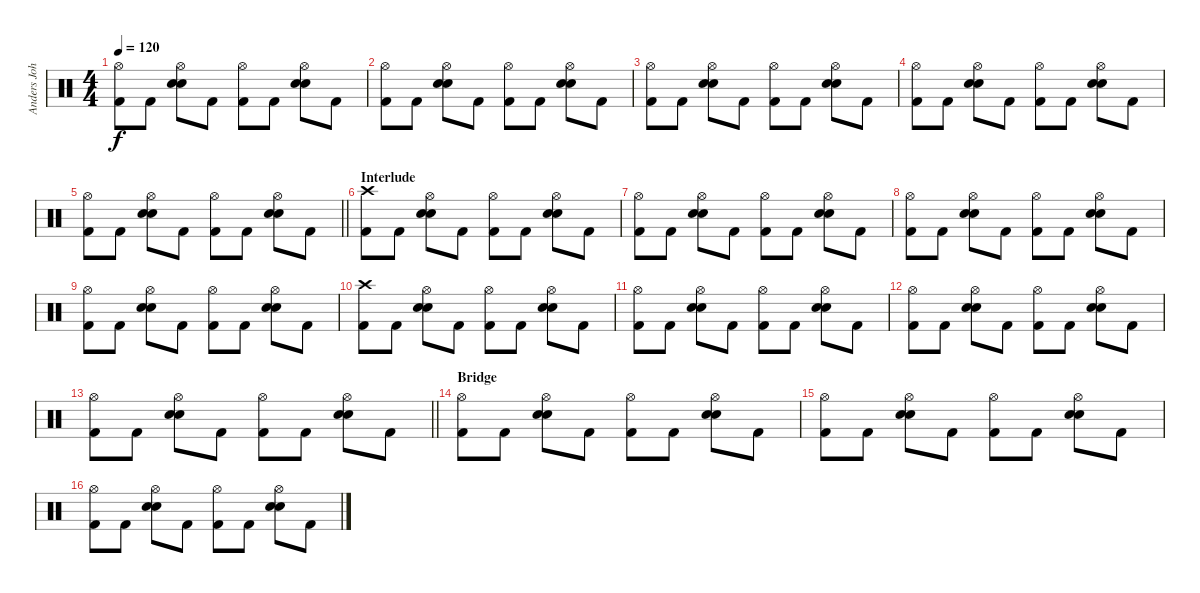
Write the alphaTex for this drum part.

\track ("Anders Johansson" "Anders Joh") {instrument percussion}
\staff {score}
\articulation defaults
\ts (4 4)
\tempo 120
\clef neutral
\ks c
("Hi-Hat (open)" "Kick (hit) 2").8{dy f} "Kick (hit) 2".8 ("Hi-Hat (open)" "Electric Snare (hit)" "Snare (hit) 2").8 "Kick (hit) 2".8 ("Hi-Hat (open)" "Kick (hit) 2").8 "Kick (hit) 2".8 ("Hi-Hat (open)" "Electric Snare (hit)" "Snare (hit) 2").8 "Kick (hit) 2".8 |
("Hi-Hat (open)" "Kick (hit) 2").8 "Kick (hit) 2".8 ("Hi-Hat (open)" "Electric Snare (hit)" "Snare (hit) 2").8 "Kick (hit) 2".8 ("Hi-Hat (open)" "Kick (hit) 2").8 "Kick (hit) 2".8 ("Hi-Hat (open)" "Electric Snare (hit)" "Snare (hit) 2").8 "Kick (hit) 2".8 |
("Hi-Hat (open)" "Kick (hit) 2").8 "Kick (hit) 2".8 ("Hi-Hat (open)" "Electric Snare (hit)" "Snare (hit) 2").8 "Kick (hit) 2".8 ("Hi-Hat (open)" "Kick (hit) 2").8 "Kick (hit) 2".8 ("Hi-Hat (open)" "Electric Snare (hit)" "Snare (hit) 2").8 "Kick (hit) 2".8 |
("Hi-Hat (open)" "Kick (hit) 2").8 "Kick (hit) 2".8 ("Hi-Hat (open)" "Electric Snare (hit)" "Snare (hit) 2").8 "Kick (hit) 2".8 ("Hi-Hat (open)" "Kick (hit) 2").8 "Kick (hit) 2".8 ("Hi-Hat (open)" "Electric Snare (hit)" "Snare (hit) 2").8 "Kick (hit) 2".8 |
\barLineRight lightlight
("Hi-Hat (open)" "Kick (hit) 2").8 "Kick (hit) 2".8 ("Hi-Hat (open)" "Electric Snare (hit)" "Snare (hit) 2").8 "Kick (hit) 2".8 ("Hi-Hat (open)" "Kick (hit) 2").8 "Kick (hit) 2".8 ("Hi-Hat (open)" "Electric Snare (hit)" "Snare (hit) 2").8 "Kick (hit) 2".8 |
\section ("" "Interlude")
("Crash high (hit)" "Kick (hit) 2").8 "Kick (hit) 2".8 ("Hi-Hat (open)" "Electric Snare (hit)" "Snare (hit) 2").8 "Kick (hit) 2".8 ("Hi-Hat (open)" "Kick (hit) 2").8 "Kick (hit) 2".8 ("Hi-Hat (open)" "Electric Snare (hit)" "Snare (hit) 2").8 "Kick (hit) 2".8 |
("Hi-Hat (open)" "Kick (hit) 2").8 "Kick (hit) 2".8 ("Hi-Hat (open)" "Electric Snare (hit)" "Snare (hit) 2").8 "Kick (hit) 2".8 ("Hi-Hat (open)" "Kick (hit) 2").8 "Kick (hit) 2".8 ("Hi-Hat (open)" "Electric Snare (hit)" "Snare (hit) 2").8 "Kick (hit) 2".8 |
("Hi-Hat (open)" "Kick (hit) 2").8 "Kick (hit) 2".8 ("Hi-Hat (open)" "Electric Snare (hit)" "Snare (hit) 2").8 "Kick (hit) 2".8 ("Hi-Hat (open)" "Kick (hit) 2").8 "Kick (hit) 2".8 ("Hi-Hat (open)" "Electric Snare (hit)" "Snare (hit) 2").8 "Kick (hit) 2".8 |
("Hi-Hat (open)" "Kick (hit) 2").8 "Kick (hit) 2".8 ("Hi-Hat (open)" "Electric Snare (hit)" "Snare (hit) 2").8 "Kick (hit) 2".8 ("Hi-Hat (open)" "Kick (hit) 2").8 "Kick (hit) 2".8 ("Hi-Hat (open)" "Electric Snare (hit)" "Snare (hit) 2").8 "Kick (hit) 2".8 |
("Crash high (hit)" "Kick (hit) 2").8 "Kick (hit) 2".8 ("Hi-Hat (open)" "Electric Snare (hit)" "Snare (hit) 2").8 "Kick (hit) 2".8 ("Hi-Hat (open)" "Kick (hit) 2").8 "Kick (hit) 2".8 ("Hi-Hat (open)" "Electric Snare (hit)" "Snare (hit) 2").8 "Kick (hit) 2".8 |
("Hi-Hat (open)" "Kick (hit) 2").8 "Kick (hit) 2".8 ("Hi-Hat (open)" "Electric Snare (hit)" "Snare (hit) 2").8 "Kick (hit) 2".8 ("Hi-Hat (open)" "Kick (hit) 2").8 "Kick (hit) 2".8 ("Hi-Hat (open)" "Electric Snare (hit)" "Snare (hit) 2").8 "Kick (hit) 2".8 |
("Hi-Hat (open)" "Kick (hit) 2").8 "Kick (hit) 2".8 ("Hi-Hat (open)" "Electric Snare (hit)" "Snare (hit) 2").8 "Kick (hit) 2".8 ("Hi-Hat (open)" "Kick (hit) 2").8 "Kick (hit) 2".8 ("Hi-Hat (open)" "Electric Snare (hit)" "Snare (hit) 2").8 "Kick (hit) 2".8 |
\barLineRight lightlight
("Hi-Hat (open)" "Kick (hit) 2").8 "Kick (hit) 2".8 ("Hi-Hat (open)" "Electric Snare (hit)" "Snare (hit) 2").8 "Kick (hit) 2".8 ("Hi-Hat (open)" "Kick (hit) 2").8 "Kick (hit) 2".8 ("Hi-Hat (open)" "Electric Snare (hit)" "Snare (hit) 2").8 "Kick (hit) 2".8 |
\section ("" "Bridge")
("Hi-Hat (open)" "Kick (hit) 2").8 "Kick (hit) 2".8 ("Hi-Hat (open)" "Electric Snare (hit)" "Snare (hit) 2").8 "Kick (hit) 2".8 ("Hi-Hat (open)" "Kick (hit) 2").8 "Kick (hit) 2".8 ("Hi-Hat (open)" "Electric Snare (hit)" "Snare (hit) 2").8 "Kick (hit) 2".8 |
("Hi-Hat (open)" "Kick (hit) 2").8 "Kick (hit) 2".8 ("Hi-Hat (open)" "Electric Snare (hit)" "Snare (hit) 2").8 "Kick (hit) 2".8 ("Hi-Hat (open)" "Kick (hit) 2").8 "Kick (hit) 2".8 ("Hi-Hat (open)" "Electric Snare (hit)" "Snare (hit) 2").8 "Kick (hit) 2".8 |
("Hi-Hat (open)" "Kick (hit) 2").8 "Kick (hit) 2".8 ("Hi-Hat (open)" "Electric Snare (hit)" "Snare (hit) 2").8 "Kick (hit) 2".8 ("Hi-Hat (open)" "Kick (hit) 2").8 "Kick (hit) 2".8 ("Hi-Hat (open)" "Electric Snare (hit)" "Snare (hit) 2").8 "Kick (hit) 2".8
